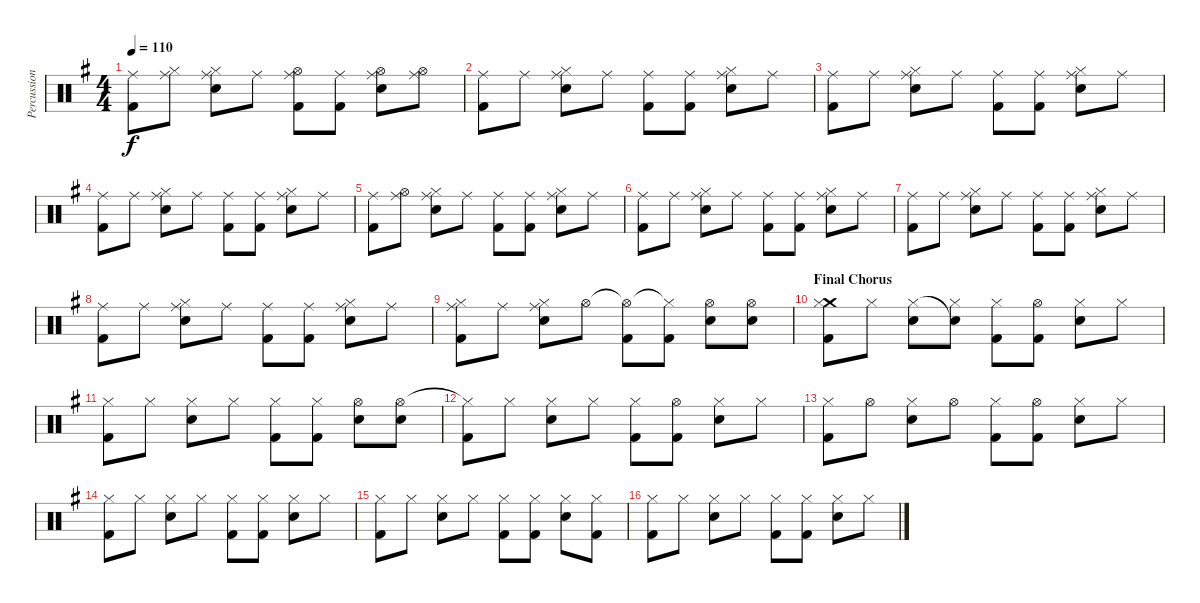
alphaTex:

\track ("Percussion" "Percussion") {instrument percussion}
\staff {score}
\articulation defaults
\ts (4 4)
\tempo 110
\clef neutral
\ks g
("Ride (middle)" "Kick (hit) 2").8{dy f} ("Ride (middle)" "Hi-Hat (closed)").8 ("Ride (middle)" "Hi-Hat (closed)" "Electric Snare (hit)").8 "Ride (middle)".8 ("Ride (middle)" "Hi-Hat (open)" "Kick (hit) 2").8 ("Ride (middle)" "Kick (hit) 2").8 ("Ride (middle)" "Hi-Hat (open)" "Electric Snare (hit)").8 ("Ride (middle)" "Hi-Hat (open)").8 |
("Ride (middle)" "Kick (hit) 2").8 "Ride (middle)".8 ("Ride (middle)" "Hi-Hat (closed)" "Electric Snare (hit)").8 "Ride (middle)".8 ("Ride (middle)" "Kick (hit) 2").8 ("Ride (middle)" "Kick (hit) 2").8 ("Ride (middle)" "Hi-Hat (closed)" "Electric Snare (hit)").8 "Ride (middle)".8 |
("Ride (middle)" "Kick (hit) 2").8 "Ride (middle)".8 ("Ride (middle)" "Hi-Hat (closed)" "Electric Snare (hit)").8 "Ride (middle)".8 ("Ride (middle)" "Kick (hit) 2").8 ("Ride (middle)" "Kick (hit) 2").8 ("Ride (middle)" "Hi-Hat (closed)" "Electric Snare (hit)").8 "Ride (middle)".8 |
("Ride (middle)" "Kick (hit) 2").8 "Ride (middle)".8 ("Ride (middle)" "Hi-Hat (closed)" "Electric Snare (hit)").8 "Ride (middle)".8 ("Ride (middle)" "Kick (hit) 2").8 ("Ride (middle)" "Kick (hit) 2").8 ("Ride (middle)" "Hi-Hat (closed)" "Electric Snare (hit)").8 "Ride (middle)".8 |
("Ride (middle)" "Kick (hit) 2").8 ("Ride (middle)" "Hi-Hat (open)").8 ("Ride (middle)" "Hi-Hat (closed)" "Electric Snare (hit)").8 "Ride (middle)".8 ("Ride (middle)" "Kick (hit) 2").8 ("Ride (middle)" "Kick (hit) 2").8 ("Ride (middle)" "Hi-Hat (closed)" "Electric Snare (hit)").8 "Ride (middle)".8 |
("Ride (middle)" "Kick (hit) 2").8 "Ride (middle)".8 ("Ride (middle)" "Hi-Hat (closed)" "Electric Snare (hit)").8 "Ride (middle)".8 ("Ride (middle)" "Kick (hit) 2").8 ("Ride (middle)" "Kick (hit) 2").8 ("Ride (middle)" "Hi-Hat (closed)" "Electric Snare (hit)").8 "Ride (middle)".8 |
("Ride (middle)" "Kick (hit) 2").8 "Ride (middle)".8 ("Ride (middle)" "Hi-Hat (closed)" "Electric Snare (hit)").8 "Ride (middle)".8 ("Ride (middle)" "Kick (hit) 2").8 ("Ride (middle)" "Kick (hit) 2").8 ("Ride (middle)" "Hi-Hat (closed)" "Electric Snare (hit)").8 "Ride (middle)".8 |
("Ride (middle)" "Kick (hit) 2").8 "Ride (middle)".8 ("Ride (middle)" "Hi-Hat (closed)" "Electric Snare (hit)").8 "Ride (middle)".8 ("Ride (middle)" "Kick (hit) 2").8 ("Ride (middle)" "Kick (hit) 2").8 ("Ride (middle)" "Hi-Hat (closed)" "Electric Snare (hit)").8 "Ride (middle)".8 |
("Ride (middle)" "Hi-Hat (closed)" "Kick (hit) 2").8 "Ride (middle)".8 ("Ride (middle)" "Hi-Hat (closed)" "Electric Snare (hit)").8 "Hi-Hat (open)".8 ("Hi-Hat (open)"{t} "Kick (hit) 2").8 ("Hi-Hat (closed)"{t} "Kick (hit) 2").8 ("Hi-Hat (open)" "Electric Snare (hit)").8 ("Hi-Hat (open)" "Electric Snare (hit)").8 |
\section ("" "Final Chorus")
("Crash medium (hit)" "Hi-Hat (closed)" "Kick (hit) 2").8 "Hi-Hat (closed)".8 ("Hi-Hat (closed)" "Electric Snare (hit)").8 ("Snare (hit)"{t} "Hi-Hat (closed)").8 ("Hi-Hat (closed)" "Kick (hit) 2").8 ("Hi-Hat (open)" "Kick (hit) 2").8 ("Hi-Hat (closed)" "Electric Snare (hit)").8 "Hi-Hat (closed)".8 |
("Hi-Hat (closed)" "Kick (hit) 2").8 "Hi-Hat (closed)".8 ("Hi-Hat (closed)" "Electric Snare (hit)").8 "Hi-Hat (closed)".8 ("Hi-Hat (closed)" "Kick (hit) 2").8 ("Hi-Hat (closed)" "Kick (hit) 2").8 ("Hi-Hat (open)" "Electric Snare (hit)").8 ("Hi-Hat (open)" "Electric Snare (hit)").8 |
("Hi-Hat (closed)"{t} "Kick (hit) 2").8 "Hi-Hat (closed)".8 ("Hi-Hat (closed)" "Electric Snare (hit)").8 "Hi-Hat (closed)".8 ("Hi-Hat (closed)" "Kick (hit) 2").8 ("Hi-Hat (open)" "Kick (hit) 2").8 ("Hi-Hat (closed)" "Electric Snare (hit)").8 "Hi-Hat (closed)".8 |
("Hi-Hat (closed)" "Kick (hit) 2").8 "Hi-Hat (open)".8 ("Hi-Hat (closed)" "Electric Snare (hit)").8 "Hi-Hat (open)".8 ("Hi-Hat (closed)" "Kick (hit) 2").8 ("Hi-Hat (open)" "Kick (hit) 2").8 ("Hi-Hat (closed)" "Electric Snare (hit)").8 "Hi-Hat (closed)".8 |
("Hi-Hat (closed)" "Kick (hit) 2").8 "Hi-Hat (closed)".8 ("Hi-Hat (closed)" "Electric Snare (hit)").8 "Hi-Hat (closed)".8 ("Hi-Hat (closed)" "Kick (hit) 2").8 ("Hi-Hat (closed)" "Kick (hit) 2").8 ("Hi-Hat (closed)" "Electric Snare (hit)").8 "Hi-Hat (closed)".8 |
("Hi-Hat (closed)" "Kick (hit) 2").8 "Hi-Hat (closed)".8 ("Hi-Hat (closed)" "Electric Snare (hit)").8 "Hi-Hat (closed)".8 ("Hi-Hat (closed)" "Kick (hit) 2").8 ("Hi-Hat (closed)" "Kick (hit) 2").8 ("Hi-Hat (closed)" "Electric Snare (hit)").8 ("Hi-Hat (closed)" "Kick (hit) 2").8 |
("Hi-Hat (closed)" "Kick (hit) 2").8 "Hi-Hat (closed)".8 ("Hi-Hat (closed)" "Electric Snare (hit)").8 "Hi-Hat (closed)".8 ("Hi-Hat (closed)" "Kick (hit) 2").8 ("Hi-Hat (closed)" "Kick (hit) 2").8 ("Hi-Hat (closed)" "Electric Snare (hit)").8 "Hi-Hat (closed)".8
